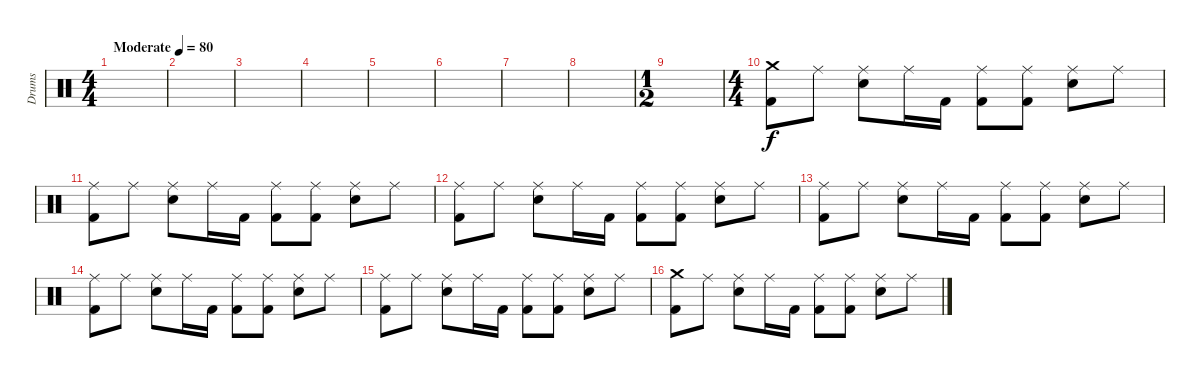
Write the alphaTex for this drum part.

\track ("Drums" "Drums") {instrument percussion}
\staff {score}
\articulation defaults
\ts (4 4)
\tempo (80 "Moderate")
\clef neutral
\ks c
|
|
|
|
|
|
|
|
\ts (1 2)
|
\ts (4 4)
("Crash medium (hit)" "Kick (hit) 2").8 "Ride (middle)".8 ("Ride (middle)" "Snare (hit) 2").8 "Ride (middle)".16 "Kick (hit) 2".16 ("Ride (middle)" "Kick (hit) 2").8 ("Ride (middle)" "Kick (hit) 2").8 ("Ride (middle)" "Snare (hit) 2").8 "Ride (middle)".8 |
("Ride (middle)" "Kick (hit) 2").8 "Ride (middle)".8 ("Ride (middle)" "Snare (hit) 2").8 "Ride (middle)".16 "Kick (hit) 2".16 ("Ride (middle)" "Kick (hit) 2").8 ("Ride (middle)" "Kick (hit) 2").8 ("Ride (middle)" "Snare (hit) 2").8 "Ride (middle)".8 |
("Ride (middle)" "Kick (hit) 2").8 "Ride (middle)".8 ("Ride (middle)" "Snare (hit) 2").8 "Ride (middle)".16 "Kick (hit) 2".16 ("Ride (middle)" "Kick (hit) 2").8 ("Ride (middle)" "Kick (hit) 2").8 ("Ride (middle)" "Snare (hit) 2").8 "Ride (middle)".8 |
("Ride (middle)" "Kick (hit) 2").8 "Ride (middle)".8 ("Ride (middle)" "Snare (hit) 2").8 "Ride (middle)".16 "Kick (hit) 2".16 ("Ride (middle)" "Kick (hit) 2").8 ("Ride (middle)" "Kick (hit) 2").8 ("Ride (middle)" "Snare (hit) 2").8 "Ride (middle)".8 |
("Ride (middle)" "Kick (hit) 2").8 "Ride (middle)".8 ("Ride (middle)" "Snare (hit) 2").8 "Ride (middle)".16 "Kick (hit) 2".16 ("Ride (middle)" "Kick (hit) 2").8 ("Ride (middle)" "Kick (hit) 2").8 ("Ride (middle)" "Snare (hit) 2").8 "Ride (middle)".8 |
("Ride (middle)" "Kick (hit) 2").8 "Ride (middle)".8 ("Ride (middle)" "Snare (hit) 2").8 "Ride (middle)".16 "Kick (hit) 2".16 ("Ride (middle)" "Kick (hit) 2").8 ("Ride (middle)" "Kick (hit) 2").8 ("Ride (middle)" "Snare (hit) 2").8 "Ride (middle)".8 |
("Crash medium (hit)" "Kick (hit) 2").8 "Ride (middle)".8 ("Ride (middle)" "Snare (hit) 2").8 "Ride (middle)".16 "Kick (hit) 2".16 ("Ride (middle)" "Kick (hit) 2").8 ("Ride (middle)" "Kick (hit) 2").8 ("Ride (middle)" "Snare (hit) 2").8 "Ride (middle)".8
